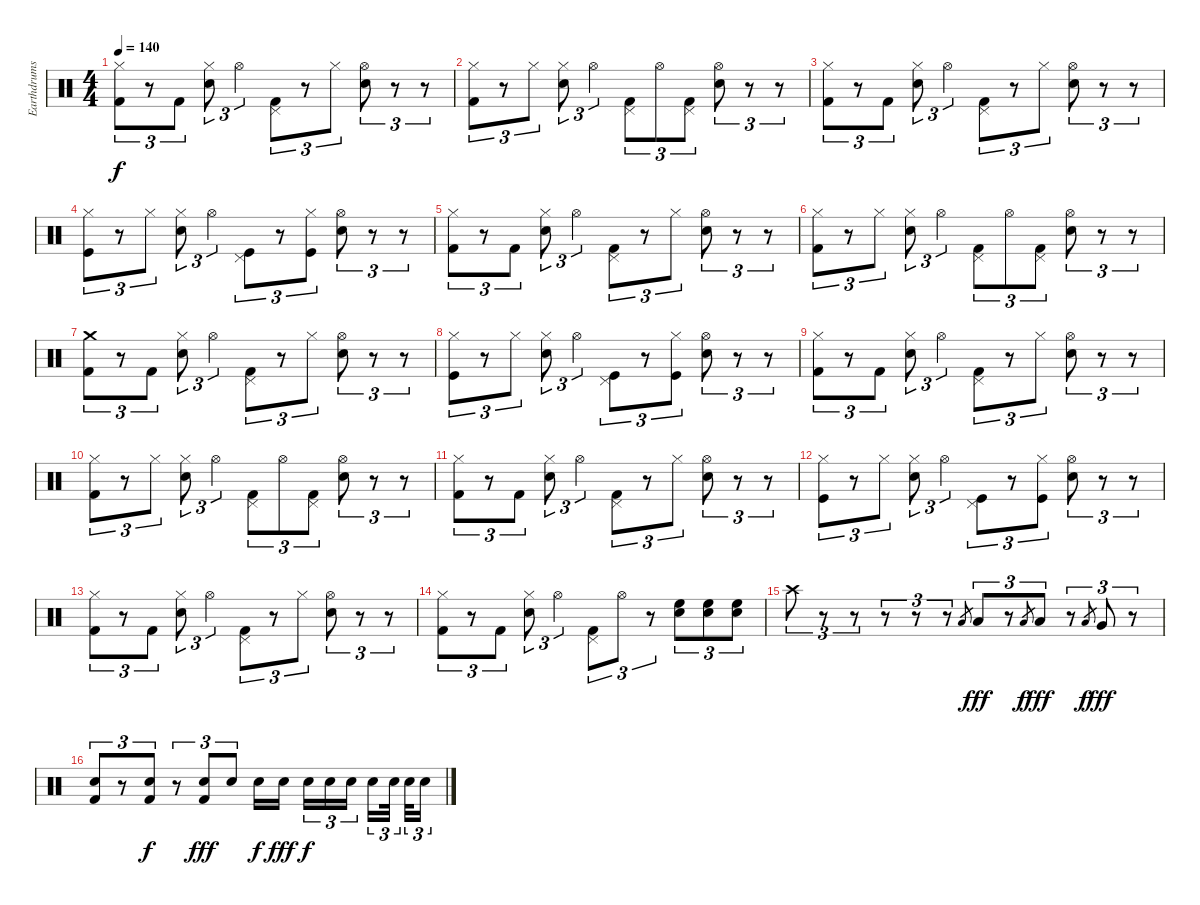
\track ("Earthdrums" "Earthdrums") {instrument percussion}
\staff {score}
\articulation defaults
\ts (4 4)
\tempo 140
\clef neutral
\ks c
("Hi-Hat (closed)" "Kick (hit) 2").8{tu (3 2) dy f} r.8{tu (3 2)} "Kick (hit) 2".8{tu (3 2)} ("Hi-Hat (closed)" "Snare (hit) 2").8{tu (3 2)} "Hi-Hat (open)".4{tu (3 2)} ("Pedal Hi-Hat (hit)" "Kick (hit) 2").8{tu (3 2)} r.8{tu (3 2)} "Hi-Hat (closed)".8{tu (3 2)} ("Hi-Hat (open)" "Snare (hit) 2").8{tu (3 2)} r.8{tu (3 2)} r.8{tu (3 2)} |
("Hi-Hat (closed)" "Kick (hit) 2").8{tu (3 2)} r.8{tu (3 2)} "Hi-Hat (closed)".8{tu (3 2)} ("Hi-Hat (closed)" "Snare (hit) 2").8{tu (3 2)} "Hi-Hat (open)".4{tu (3 2)} ("Pedal Hi-Hat (hit)" "Kick (hit) 2").8{tu (3 2)} "Hi-Hat (open)".8{tu (3 2)} ("Pedal Hi-Hat (hit)" "Kick (hit) 2").8{tu (3 2)} ("Hi-Hat (open)" "Snare (hit) 2").8{tu (3 2)} r.8{tu (3 2)} r.8{tu (3 2)} |
("Hi-Hat (closed)" "Kick (hit) 2").8{tu (3 2)} r.8{tu (3 2)} "Kick (hit) 2".8{tu (3 2)} ("Hi-Hat (closed)" "Snare (hit) 2").8{tu (3 2)} "Hi-Hat (open)".4{tu (3 2)} ("Pedal Hi-Hat (hit)" "Kick (hit) 2").8{tu (3 2)} r.8{tu (3 2)} "Hi-Hat (closed)".8{tu (3 2)} ("Hi-Hat (open)" "Snare (hit) 2").8{tu (3 2)} r.8{tu (3 2)} r.8{tu (3 2)} |
("Hi-Hat (closed)" "Kick (hit)").8{tu (3 2)} r.8{tu (3 2)} "Hi-Hat (closed)".8{tu (3 2)} ("Hi-Hat (closed)" "Snare (hit) 2").8{tu (3 2)} "Hi-Hat (open)".4{tu (3 2)} ("Pedal Hi-Hat (hit)" "Kick (hit)").8{tu (3 2)} r.8{tu (3 2)} ("Hi-Hat (closed)" "Kick (hit)").8{tu (3 2)} ("Hi-Hat (open)" "Snare (hit) 2").8{tu (3 2)} r.8{tu (3 2)} r.8{tu (3 2)} |
("Hi-Hat (closed)" "Kick (hit) 2").8{tu (3 2)} r.8{tu (3 2)} "Kick (hit) 2".8{tu (3 2)} ("Hi-Hat (closed)" "Snare (hit) 2").8{tu (3 2)} "Hi-Hat (open)".4{tu (3 2)} ("Pedal Hi-Hat (hit)" "Kick (hit) 2").8{tu (3 2)} r.8{tu (3 2)} "Hi-Hat (closed)".8{tu (3 2)} ("Hi-Hat (open)" "Snare (hit) 2").8{tu (3 2)} r.8{tu (3 2)} r.8{tu (3 2)} |
("Hi-Hat (closed)" "Kick (hit) 2").8{tu (3 2)} r.8{tu (3 2)} "Hi-Hat (closed)".8{tu (3 2)} ("Hi-Hat (closed)" "Snare (hit) 2").8{tu (3 2)} "Hi-Hat (open)".4{tu (3 2)} ("Pedal Hi-Hat (hit)" "Kick (hit) 2").8{tu (3 2)} "Hi-Hat (open)".8{tu (3 2)} ("Pedal Hi-Hat (hit)" "Kick (hit) 2").8{tu (3 2)} ("Hi-Hat (open)" "Snare (hit) 2").8{tu (3 2)} r.8{tu (3 2)} r.8{tu (3 2)} |
("Crash medium (hit)" "Kick (hit) 2").8{tu (3 2)} r.8{tu (3 2)} "Kick (hit) 2".8{tu (3 2)} ("Hi-Hat (closed)" "Snare (hit) 2").8{tu (3 2)} "Hi-Hat (open)".4{tu (3 2)} ("Pedal Hi-Hat (hit)" "Kick (hit) 2").8{tu (3 2)} r.8{tu (3 2)} "Hi-Hat (closed)".8{tu (3 2)} ("Hi-Hat (open)" "Snare (hit) 2").8{tu (3 2)} r.8{tu (3 2)} r.8{tu (3 2)} |
("Hi-Hat (closed)" "Kick (hit)").8{tu (3 2)} r.8{tu (3 2)} "Hi-Hat (closed)".8{tu (3 2)} ("Hi-Hat (closed)" "Snare (hit) 2").8{tu (3 2)} "Hi-Hat (open)".4{tu (3 2)} ("Pedal Hi-Hat (hit)" "Kick (hit)").8{tu (3 2)} r.8{tu (3 2)} ("Hi-Hat (closed)" "Kick (hit)").8{tu (3 2)} ("Hi-Hat (open)" "Snare (hit) 2").8{tu (3 2)} r.8{tu (3 2)} r.8{tu (3 2)} |
("Hi-Hat (closed)" "Kick (hit) 2").8{tu (3 2)} r.8{tu (3 2)} "Kick (hit) 2".8{tu (3 2)} ("Hi-Hat (closed)" "Snare (hit) 2").8{tu (3 2)} "Hi-Hat (open)".4{tu (3 2)} ("Pedal Hi-Hat (hit)" "Kick (hit) 2").8{tu (3 2)} r.8{tu (3 2)} "Hi-Hat (closed)".8{tu (3 2)} ("Hi-Hat (open)" "Snare (hit) 2").8{tu (3 2)} r.8{tu (3 2)} r.8{tu (3 2)} |
("Hi-Hat (closed)" "Kick (hit) 2").8{tu (3 2)} r.8{tu (3 2)} "Hi-Hat (closed)".8{tu (3 2)} ("Hi-Hat (closed)" "Snare (hit) 2").8{tu (3 2)} "Hi-Hat (open)".4{tu (3 2)} ("Pedal Hi-Hat (hit)" "Kick (hit) 2").8{tu (3 2)} "Hi-Hat (open)".8{tu (3 2)} ("Pedal Hi-Hat (hit)" "Kick (hit) 2").8{tu (3 2)} ("Hi-Hat (open)" "Snare (hit) 2").8{tu (3 2)} r.8{tu (3 2)} r.8{tu (3 2)} |
("Hi-Hat (closed)" "Kick (hit) 2").8{tu (3 2)} r.8{tu (3 2)} "Kick (hit) 2".8{tu (3 2)} ("Hi-Hat (closed)" "Snare (hit) 2").8{tu (3 2)} "Hi-Hat (open)".4{tu (3 2)} ("Pedal Hi-Hat (hit)" "Kick (hit) 2").8{tu (3 2)} r.8{tu (3 2)} "Hi-Hat (closed)".8{tu (3 2)} ("Hi-Hat (open)" "Snare (hit) 2").8{tu (3 2)} r.8{tu (3 2)} r.8{tu (3 2)} |
("Hi-Hat (closed)" "Kick (hit)").8{tu (3 2)} r.8{tu (3 2)} "Hi-Hat (closed)".8{tu (3 2)} ("Hi-Hat (closed)" "Snare (hit) 2").8{tu (3 2)} "Hi-Hat (open)".4{tu (3 2)} ("Pedal Hi-Hat (hit)" "Kick (hit)").8{tu (3 2)} r.8{tu (3 2)} ("Hi-Hat (closed)" "Kick (hit)").8{tu (3 2)} ("Hi-Hat (open)" "Snare (hit) 2").8{tu (3 2)} r.8{tu (3 2)} r.8{tu (3 2)} |
("Hi-Hat (closed)" "Kick (hit) 2").8{tu (3 2)} r.8{tu (3 2)} "Kick (hit) 2".8{tu (3 2)} ("Hi-Hat (closed)" "Snare (hit) 2").8{tu (3 2)} "Hi-Hat (open)".4{tu (3 2)} ("Pedal Hi-Hat (hit)" "Kick (hit) 2").8{tu (3 2)} r.8{tu (3 2)} "Hi-Hat (closed)".8{tu (3 2)} ("Hi-Hat (open)" "Snare (hit) 2").8{tu (3 2)} r.8{tu (3 2)} r.8{tu (3 2)} |
("Hi-Hat (closed)" "Kick (hit) 2").8{tu (3 2)} r.8{tu (3 2)} "Kick (hit) 2".8{tu (3 2)} ("Hi-Hat (closed)" "Snare (hit) 2").8{tu (3 2)} "Hi-Hat (open)".4{tu (3 2)} ("Pedal Hi-Hat (hit)" "Kick (hit) 2").8{tu (3 2)} "Hi-Hat (open)".8{tu (3 2)} r.8{tu (3 2)} ("Snare (hit) 2" "High Floor Tom (hit)").8{tu (3 2)} ("Snare (hit) 2" "High Floor Tom (hit)").8{tu (3 2)} ("Snare (hit) 2" "High Floor Tom (hit)").8{tu (3 2)} |
"Crash high (hit)".8{tu (3 2)} r.8{tu (3 2)} r.8{tu (3 2)} r.8{tu (3 2)} r.8{tu (3 2)} r.8{tu (3 2)} "Low Tom (hit)".8{gr} "Low Tom (hit)".8{tu (3 2) dy fff} r.8{tu (3 2)} "Low Tom (hit)".8{gr dy f} "Low Tom (hit)".8{tu (3 2) dy fff} r.8{tu (3 2)} "Low Tom (hit)".8{gr dy f} "Very Low Tom (hit)".8{tu (3 2) dy fff} r.8{tu (3 2)} |
("Snare (hit) 2" "Kick (hit) 2").8{tu (3 2)} r.8{tu (3 2)} ("Snare (hit) 2" "Kick (hit) 2").8{tu (3 2) dy f} r.8{tu (3 2)} ("Snare (hit) 2" "Kick (hit) 2").8{tu (3 2) dy fff} "Snare (hit) 2".8{tu (3 2)} "Snare (hit) 2".16{dy f} "Snare (hit) 2".16{dy fff beam splitsecondary} "Snare (hit) 2".16{tu (3 2) dy f} "Snare (hit) 2".16{tu (3 2)} "Snare (hit) 2".16{tu (3 2)} "Snare (hit) 2".16{tu (3 2)} "Snare (hit) 2".32{tu (3 2) beam splitsecondary} "Snare (hit) 2".32{tu (3 2)} "Snare (hit) 2".16{tu (3 2)}
